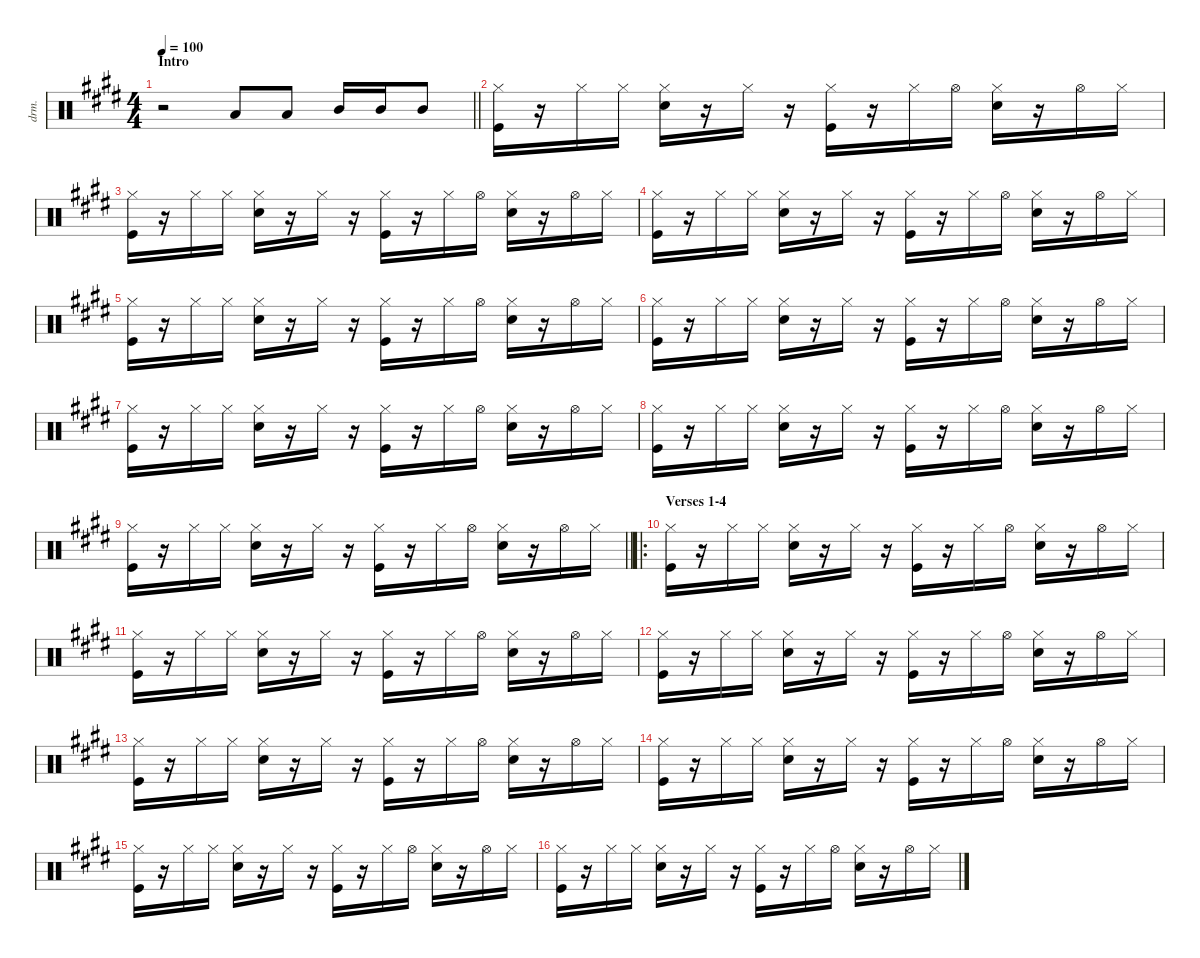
\defaultSystemsLayout 4
\hideDynamics
\bracketExtendMode nobrackets
\otherSystemsTrackNameOrientation horizontal
\track ("Drums" "drm.") {instrument percussion}
\staff {score}
\articulation defaults
\ts (4 4)
\section ("" "Intro")
\tempo 100
\clef neutral
\barLineRight lightlight
\ks e
r.2{dy f beam Down} "Low Floor Tom (hit)"{acc forcenatural}.8{beam Up} "Low Floor Tom (hit)"{acc forcenatural}.8{beam Up} "Mid Tom (hit)"{acc forcenatural}.16{beam Up} "Mid Tom (hit)"{acc forcenatural}.16{beam Up} "Mid Tom (hit)"{acc forcenatural}.8{beam Up} |
("Hi-Hat (closed)"{acc forcenatural} "Kick (hit)"{acc forcenatural}).16{beam Down} r.16{beam Down} "Hi-Hat (closed)"{acc forcenatural}.16{beam Down} "Hi-Hat (closed)"{acc forcenatural}.16{beam Down} ("Hi-Hat (closed)"{acc forcenatural} "Snare (hit) 2"{acc forcenatural}).16{beam Down} r.16{beam Down} "Hi-Hat (closed)"{acc forcenatural}.16{beam Down} r.16{beam Down} ("Hi-Hat (closed)"{acc forcenatural} "Kick (hit)"{acc forcenatural}).16{beam Down} r.16{beam Down} "Hi-Hat (closed)"{acc forcenatural}.16{beam Down} "Hi-Hat (open)"{acc forcenatural}.16{beam Down} ("Hi-Hat (closed)"{acc forcenatural} "Snare (hit) 2"{acc forcenatural}).16{beam Down} r.16{beam Down} "Hi-Hat (open)"{acc forcenatural}.16{beam Down} "Hi-Hat (closed)"{acc forcenatural}.16{beam Down} |
("Hi-Hat (closed)"{acc forcenatural} "Kick (hit)"{acc forcenatural}).16{beam Down} r.16{beam Down} "Hi-Hat (closed)"{acc forcenatural}.16{beam Down} "Hi-Hat (closed)"{acc forcenatural}.16{beam Down} ("Hi-Hat (closed)"{acc forcenatural} "Snare (hit) 2"{acc forcenatural}).16{beam Down} r.16{beam Down} "Hi-Hat (closed)"{acc forcenatural}.16{beam Down} r.16{beam Down} ("Hi-Hat (closed)"{acc forcenatural} "Kick (hit)"{acc forcenatural}).16{beam Down} r.16{beam Down} "Hi-Hat (closed)"{acc forcenatural}.16{beam Down} "Hi-Hat (open)"{acc forcenatural}.16{beam Down} ("Hi-Hat (closed)"{acc forcenatural} "Snare (hit) 2"{acc forcenatural}).16{beam Down} r.16{beam Down} "Hi-Hat (open)"{acc forcenatural}.16{beam Down} "Hi-Hat (closed)"{acc forcenatural}.16{beam Down} |
("Hi-Hat (closed)"{acc forcenatural} "Kick (hit)"{acc forcenatural}).16{beam Down} r.16{beam Down} "Hi-Hat (closed)"{acc forcenatural}.16{beam Down} "Hi-Hat (closed)"{acc forcenatural}.16{beam Down} ("Hi-Hat (closed)"{acc forcenatural} "Snare (hit) 2"{acc forcenatural}).16{beam Down} r.16{beam Down} "Hi-Hat (closed)"{acc forcenatural}.16{beam Down} r.16{beam Down} ("Hi-Hat (closed)"{acc forcenatural} "Kick (hit)"{acc forcenatural}).16{beam Down} r.16{beam Down} "Hi-Hat (closed)"{acc forcenatural}.16{beam Down} "Hi-Hat (open)"{acc forcenatural}.16{beam Down} ("Hi-Hat (closed)"{acc forcenatural} "Snare (hit) 2"{acc forcenatural}).16{beam Down} r.16{beam Down} "Hi-Hat (open)"{acc forcenatural}.16{beam Down} "Hi-Hat (closed)"{acc forcenatural}.16{beam Down} |
("Hi-Hat (closed)"{acc forcenatural} "Kick (hit)"{acc forcenatural}).16{beam Down} r.16{beam Down} "Hi-Hat (closed)"{acc forcenatural}.16{beam Down} "Hi-Hat (closed)"{acc forcenatural}.16{beam Down} ("Hi-Hat (closed)"{acc forcenatural} "Snare (hit) 2"{acc forcenatural}).16{beam Down} r.16{beam Down} "Hi-Hat (closed)"{acc forcenatural}.16{beam Down} r.16{beam Down} ("Hi-Hat (closed)"{acc forcenatural} "Kick (hit)"{acc forcenatural}).16{beam Down} r.16{beam Down} "Hi-Hat (closed)"{acc forcenatural}.16{beam Down} "Hi-Hat (open)"{acc forcenatural}.16{beam Down} ("Hi-Hat (closed)"{acc forcenatural} "Snare (hit) 2"{acc forcenatural}).16{beam Down} r.16{beam Down} "Hi-Hat (open)"{acc forcenatural}.16{beam Down} "Hi-Hat (closed)"{acc forcenatural}.16{beam Down} |
("Hi-Hat (closed)"{acc forcenatural} "Kick (hit)"{acc forcenatural}).16{beam Down} r.16{beam Down} "Hi-Hat (closed)"{acc forcenatural}.16{beam Down} "Hi-Hat (closed)"{acc forcenatural}.16{beam Down} ("Hi-Hat (closed)"{acc forcenatural} "Snare (hit) 2"{acc forcenatural}).16{beam Down} r.16{beam Down} "Hi-Hat (closed)"{acc forcenatural}.16{beam Down} r.16{beam Down} ("Hi-Hat (closed)"{acc forcenatural} "Kick (hit)"{acc forcenatural}).16{beam Down} r.16{beam Down} "Hi-Hat (closed)"{acc forcenatural}.16{beam Down} "Hi-Hat (open)"{acc forcenatural}.16{beam Down} ("Hi-Hat (closed)"{acc forcenatural} "Snare (hit) 2"{acc forcenatural}).16{beam Down} r.16{beam Down} "Hi-Hat (open)"{acc forcenatural}.16{beam Down} "Hi-Hat (closed)"{acc forcenatural}.16{beam Down} |
("Hi-Hat (closed)"{acc forcenatural} "Kick (hit)"{acc forcenatural}).16{beam Down} r.16{beam Down} "Hi-Hat (closed)"{acc forcenatural}.16{beam Down} "Hi-Hat (closed)"{acc forcenatural}.16{beam Down} ("Hi-Hat (closed)"{acc forcenatural} "Snare (hit) 2"{acc forcenatural}).16{beam Down} r.16{beam Down} "Hi-Hat (closed)"{acc forcenatural}.16{beam Down} r.16{beam Down} ("Hi-Hat (closed)"{acc forcenatural} "Kick (hit)"{acc forcenatural}).16{beam Down} r.16{beam Down} "Hi-Hat (closed)"{acc forcenatural}.16{beam Down} "Hi-Hat (open)"{acc forcenatural}.16{beam Down} ("Hi-Hat (closed)"{acc forcenatural} "Snare (hit) 2"{acc forcenatural}).16{beam Down} r.16{beam Down} "Hi-Hat (open)"{acc forcenatural}.16{beam Down} "Hi-Hat (closed)"{acc forcenatural}.16{beam Down} |
("Hi-Hat (closed)"{acc forcenatural} "Kick (hit)"{acc forcenatural}).16{beam Down} r.16{beam Down} "Hi-Hat (closed)"{acc forcenatural}.16{beam Down} "Hi-Hat (closed)"{acc forcenatural}.16{beam Down} ("Hi-Hat (closed)"{acc forcenatural} "Snare (hit) 2"{acc forcenatural}).16{beam Down} r.16{beam Down} "Hi-Hat (closed)"{acc forcenatural}.16{beam Down} r.16{beam Down} ("Hi-Hat (closed)"{acc forcenatural} "Kick (hit)"{acc forcenatural}).16{beam Down} r.16{beam Down} "Hi-Hat (closed)"{acc forcenatural}.16{beam Down} "Hi-Hat (open)"{acc forcenatural}.16{beam Down} ("Hi-Hat (closed)"{acc forcenatural} "Snare (hit) 2"{acc forcenatural}).16{beam Down} r.16{beam Down} "Hi-Hat (open)"{acc forcenatural}.16{beam Down} "Hi-Hat (closed)"{acc forcenatural}.16{beam Down} |
\barLineRight lightlight
("Hi-Hat (closed)"{acc forcenatural} "Kick (hit)"{acc forcenatural}).16{beam Down} r.16{beam Down} "Hi-Hat (closed)"{acc forcenatural}.16{beam Down} "Hi-Hat (closed)"{acc forcenatural}.16{beam Down} ("Hi-Hat (closed)"{acc forcenatural} "Snare (hit) 2"{acc forcenatural}).16{beam Down} r.16{beam Down} "Hi-Hat (closed)"{acc forcenatural}.16{beam Down} r.16{beam Down} ("Hi-Hat (closed)"{acc forcenatural} "Kick (hit)"{acc forcenatural}).16{beam Down} r.16{beam Down} "Hi-Hat (closed)"{acc forcenatural}.16{beam Down} "Hi-Hat (open)"{acc forcenatural}.16{beam Down} ("Hi-Hat (closed)"{acc forcenatural} "Snare (hit) 2"{acc forcenatural}).16{beam Down} r.16{beam Down} "Hi-Hat (open)"{acc forcenatural}.16{beam Down} "Hi-Hat (closed)"{acc forcenatural}.16{beam Down} |
\ro
\section ("" "Verses 1-4")
("Hi-Hat (closed)"{acc forcenatural} "Kick (hit)"{acc forcenatural}).16{beam Down} r.16{beam Down} "Hi-Hat (closed)"{acc forcenatural}.16{beam Down} "Hi-Hat (closed)"{acc forcenatural}.16{beam Down} ("Hi-Hat (closed)"{acc forcenatural} "Snare (hit) 2"{acc forcenatural}).16{beam Down} r.16{beam Down} "Hi-Hat (closed)"{acc forcenatural}.16{beam Down} r.16{beam Down} ("Hi-Hat (closed)"{acc forcenatural} "Kick (hit)"{acc forcenatural}).16{beam Down} r.16{beam Down} "Hi-Hat (closed)"{acc forcenatural}.16{beam Down} "Hi-Hat (open)"{acc forcenatural}.16{beam Down} ("Hi-Hat (closed)"{acc forcenatural} "Snare (hit) 2"{acc forcenatural}).16{beam Down} r.16{beam Down} "Hi-Hat (open)"{acc forcenatural}.16{beam Down} "Hi-Hat (closed)"{acc forcenatural}.16{beam Down} |
("Hi-Hat (closed)"{acc forcenatural} "Kick (hit)"{acc forcenatural}).16{beam Down} r.16{beam Down} "Hi-Hat (closed)"{acc forcenatural}.16{beam Down} "Hi-Hat (closed)"{acc forcenatural}.16{beam Down} ("Hi-Hat (closed)"{acc forcenatural} "Snare (hit) 2"{acc forcenatural}).16{beam Down} r.16{beam Down} "Hi-Hat (closed)"{acc forcenatural}.16{beam Down} r.16{beam Down} ("Hi-Hat (closed)"{acc forcenatural} "Kick (hit)"{acc forcenatural}).16{beam Down} r.16{beam Down} "Hi-Hat (closed)"{acc forcenatural}.16{beam Down} "Hi-Hat (open)"{acc forcenatural}.16{beam Down} ("Hi-Hat (closed)"{acc forcenatural} "Snare (hit) 2"{acc forcenatural}).16{beam Down} r.16{beam Down} "Hi-Hat (open)"{acc forcenatural}.16{beam Down} "Hi-Hat (closed)"{acc forcenatural}.16{beam Down} |
("Hi-Hat (closed)"{acc forcenatural} "Kick (hit)"{acc forcenatural}).16{beam Down} r.16{beam Down} "Hi-Hat (closed)"{acc forcenatural}.16{beam Down} "Hi-Hat (closed)"{acc forcenatural}.16{beam Down} ("Hi-Hat (closed)"{acc forcenatural} "Snare (hit) 2"{acc forcenatural}).16{beam Down} r.16{beam Down} "Hi-Hat (closed)"{acc forcenatural}.16{beam Down} r.16{beam Down} ("Hi-Hat (closed)"{acc forcenatural} "Kick (hit)"{acc forcenatural}).16{beam Down} r.16{beam Down} "Hi-Hat (closed)"{acc forcenatural}.16{beam Down} "Hi-Hat (open)"{acc forcenatural}.16{beam Down} ("Hi-Hat (closed)"{acc forcenatural} "Snare (hit) 2"{acc forcenatural}).16{beam Down} r.16{beam Down} "Hi-Hat (open)"{acc forcenatural}.16{beam Down} "Hi-Hat (closed)"{acc forcenatural}.16{beam Down} |
("Hi-Hat (closed)"{acc forcenatural} "Kick (hit)"{acc forcenatural}).16{beam Down} r.16{beam Down} "Hi-Hat (closed)"{acc forcenatural}.16{beam Down} "Hi-Hat (closed)"{acc forcenatural}.16{beam Down} ("Hi-Hat (closed)"{acc forcenatural} "Snare (hit) 2"{acc forcenatural}).16{beam Down} r.16{beam Down} "Hi-Hat (closed)"{acc forcenatural}.16{beam Down} r.16{beam Down} ("Hi-Hat (closed)"{acc forcenatural} "Kick (hit)"{acc forcenatural}).16{beam Down} r.16{beam Down} "Hi-Hat (closed)"{acc forcenatural}.16{beam Down} "Hi-Hat (open)"{acc forcenatural}.16{beam Down} ("Hi-Hat (closed)"{acc forcenatural} "Snare (hit) 2"{acc forcenatural}).16{beam Down} r.16{beam Down} "Hi-Hat (open)"{acc forcenatural}.16{beam Down} "Hi-Hat (closed)"{acc forcenatural}.16{beam Down} |
("Hi-Hat (closed)"{acc forcenatural} "Kick (hit)"{acc forcenatural}).16{beam Down} r.16{beam Down} "Hi-Hat (closed)"{acc forcenatural}.16{beam Down} "Hi-Hat (closed)"{acc forcenatural}.16{beam Down} ("Hi-Hat (closed)"{acc forcenatural} "Snare (hit) 2"{acc forcenatural}).16{beam Down} r.16{beam Down} "Hi-Hat (closed)"{acc forcenatural}.16{beam Down} r.16{beam Down} ("Hi-Hat (closed)"{acc forcenatural} "Kick (hit)"{acc forcenatural}).16{beam Down} r.16{beam Down} "Hi-Hat (closed)"{acc forcenatural}.16{beam Down} "Hi-Hat (open)"{acc forcenatural}.16{beam Down} ("Hi-Hat (closed)"{acc forcenatural} "Snare (hit) 2"{acc forcenatural}).16{beam Down} r.16{beam Down} "Hi-Hat (open)"{acc forcenatural}.16{beam Down} "Hi-Hat (closed)"{acc forcenatural}.16{beam Down} |
("Hi-Hat (closed)"{acc forcenatural} "Kick (hit)"{acc forcenatural}).16{beam Down} r.16{beam Down} "Hi-Hat (closed)"{acc forcenatural}.16{beam Down} "Hi-Hat (closed)"{acc forcenatural}.16{beam Down} ("Hi-Hat (closed)"{acc forcenatural} "Snare (hit) 2"{acc forcenatural}).16{beam Down} r.16{beam Down} "Hi-Hat (closed)"{acc forcenatural}.16{beam Down} r.16{beam Down} ("Hi-Hat (closed)"{acc forcenatural} "Kick (hit)"{acc forcenatural}).16{beam Down} r.16{beam Down} "Hi-Hat (closed)"{acc forcenatural}.16{beam Down} "Hi-Hat (open)"{acc forcenatural}.16{beam Down} ("Hi-Hat (closed)"{acc forcenatural} "Snare (hit) 2"{acc forcenatural}).16{beam Down} r.16{beam Down} "Hi-Hat (open)"{acc forcenatural}.16{beam Down} "Hi-Hat (closed)"{acc forcenatural}.16{beam Down} |
("Hi-Hat (closed)"{acc forcenatural} "Kick (hit)"{acc forcenatural}).16{beam Down} r.16{beam Down} "Hi-Hat (closed)"{acc forcenatural}.16{beam Down} "Hi-Hat (closed)"{acc forcenatural}.16{beam Down} ("Hi-Hat (closed)"{acc forcenatural} "Snare (hit) 2"{acc forcenatural}).16{beam Down} r.16{beam Down} "Hi-Hat (closed)"{acc forcenatural}.16{beam Down} r.16{beam Down} ("Hi-Hat (closed)"{acc forcenatural} "Kick (hit)"{acc forcenatural}).16{beam Down} r.16{beam Down} "Hi-Hat (closed)"{acc forcenatural}.16{beam Down} "Hi-Hat (open)"{acc forcenatural}.16{beam Down} ("Hi-Hat (closed)"{acc forcenatural} "Snare (hit) 2"{acc forcenatural}).16{beam Down} r.16{beam Down} "Hi-Hat (open)"{acc forcenatural}.16{beam Down} "Hi-Hat (closed)"{acc forcenatural}.16{beam Down}
